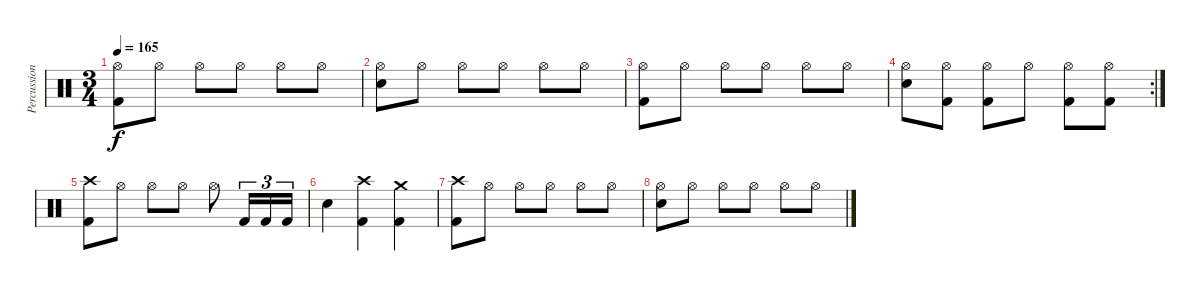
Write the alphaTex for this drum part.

\track ("Percussion" "Percussion") {instrument percussion}
\staff {score}
\articulation defaults
\ts (3 4)
\tempo 165
\clef neutral
\ks c
("Hi-Hat (open)" "Kick (hit) 2").8{dy f} "Hi-Hat (open)".8 "Hi-Hat (open)".8 "Hi-Hat (open)".8 "Hi-Hat (open)".8 "Hi-Hat (open)".8 |
("Hi-Hat (open)" "Electric Snare (hit)").8 "Hi-Hat (open)".8 "Hi-Hat (open)".8 "Hi-Hat (open)".8 "Hi-Hat (open)".8 "Hi-Hat (open)".8 |
("Hi-Hat (open)" "Kick (hit) 2").8 "Hi-Hat (open)".8 "Hi-Hat (open)".8 "Hi-Hat (open)".8 "Hi-Hat (open)".8 "Hi-Hat (open)".8 |
\rc 2
("Hi-Hat (open)" "Electric Snare (hit)").8 ("Hi-Hat (open)" "Kick (hit) 2").8 ("Hi-Hat (open)" "Kick (hit) 2").8 "Hi-Hat (open)".8 ("Hi-Hat (open)" "Kick (hit) 2").8 ("Hi-Hat (open)" "Kick (hit) 2").8 |
("Crash high (hit)" "Kick (hit) 2").8 "Hi-Hat (open)".8 "Hi-Hat (open)".8 "Hi-Hat (open)".8 "Hi-Hat (open)".8 "Kick (hit) 2".16{tu (3 2)} "Kick (hit) 2".16{tu (3 2)} "Kick (hit) 2".16{tu (3 2)} |
"Electric Snare (hit)".4 ("Crash high (hit)" "Kick (hit) 2").4 ("Crash medium (hit)" "Kick (hit) 2").4 |
("Crash high (hit)" "Kick (hit) 2").8 "Hi-Hat (open)".8 "Hi-Hat (open)".8 "Hi-Hat (open)".8 "Hi-Hat (open)".8 "Hi-Hat (open)".8 |
("Hi-Hat (open)" "Electric Snare (hit)").8 "Hi-Hat (open)".8 "Hi-Hat (open)".8 "Hi-Hat (open)".8 "Hi-Hat (open)".8 "Hi-Hat (open)".8
